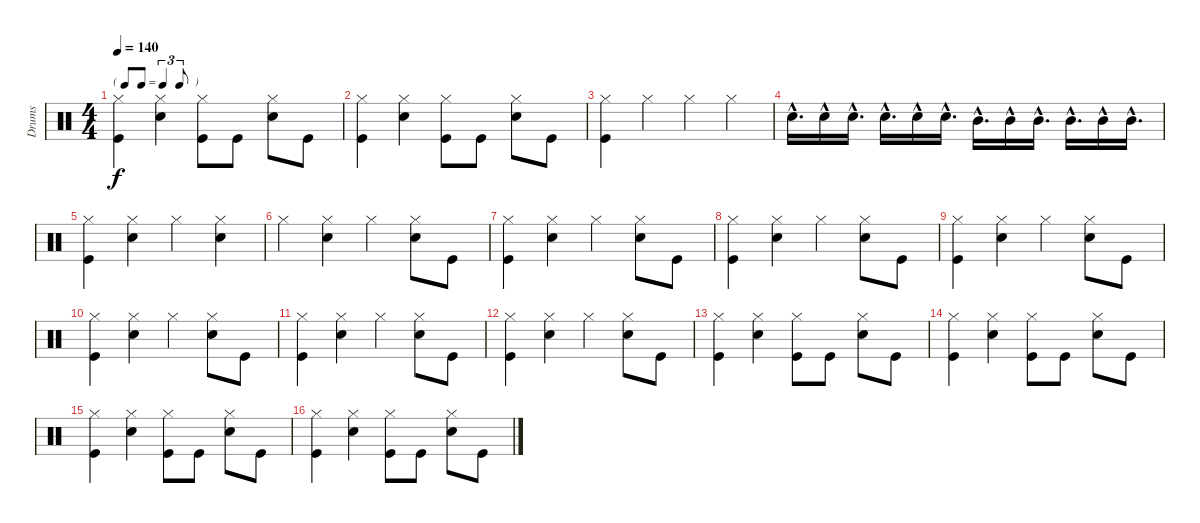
\track ("Drums" "Drums") {instrument percussion}
\staff {score}
\articulation defaults
\ts (4 4)
\tf triplet8th
\tempo 140
\clef neutral
\ks c
("Hi-Hat (closed)" "Kick (hit)").4{dy f} ("Hi-Hat (closed)" "Snare (hit) 2").4 ("Kick (hit)" "Hi-Hat (closed)").8 "Kick (hit)".8 ("Hi-Hat (closed)" "Snare (hit) 2").8 "Kick (hit)".8 |
("Hi-Hat (closed)" "Kick (hit)").4 ("Hi-Hat (closed)" "Snare (hit) 2").4 ("Kick (hit)" "Hi-Hat (closed)").8 "Kick (hit)".8 ("Hi-Hat (closed)" "Snare (hit) 2").8 "Kick (hit)".8 |
("Hi-Hat (closed)" "Kick (hit)").4 "Hi-Hat (closed)".4 "Hi-Hat (closed)".4 "Hi-Hat (closed)".4 |
"Snare (hit) 2"{hac}.16{d} "Snare (hit) 2"{hac}.16 "Snare (hit) 2"{hac}.16{d} "Snare (hit) 2"{hac}.16{d} "Snare (hit) 2"{hac}.16 "Snare (hit) 2"{hac}.16{d} "Mid Tom (hit)"{hac}.16{d} "Mid Tom (hit)"{hac}.16 "Mid Tom (hit)"{hac}.16{d} "Mid Tom (hit)"{hac}.16{d} "Mid Tom (hit)"{hac}.16 "Mid Tom (hit)"{hac}.16{d} |
("Hi-Hat (closed)" "Kick (hit)").4 ("Hi-Hat (closed)" "Snare (hit) 2").4 "Hi-Hat (closed)".4 ("Hi-Hat (closed)" "Snare (hit) 2").4 |
"Hi-Hat (closed)".4 ("Hi-Hat (closed)" "Snare (hit) 2").4 "Hi-Hat (closed)".4 ("Snare (hit) 2" "Hi-Hat (closed)").8 "Kick (hit)".8 |
("Hi-Hat (closed)" "Kick (hit)").4 ("Hi-Hat (closed)" "Snare (hit) 2").4 "Hi-Hat (closed)".4 ("Hi-Hat (closed)" "Snare (hit) 2").8 "Kick (hit)".8 |
("Kick (hit)" "Hi-Hat (closed)").4 ("Hi-Hat (closed)" "Snare (hit) 2").4 "Hi-Hat (closed)".4 ("Hi-Hat (closed)" "Snare (hit) 2").8 "Kick (hit)".8 |
("Kick (hit)" "Hi-Hat (closed)").4 ("Hi-Hat (closed)" "Snare (hit) 2").4 "Hi-Hat (closed)".4 ("Hi-Hat (closed)" "Snare (hit) 2").8 "Kick (hit)".8 |
("Kick (hit)" "Hi-Hat (closed)").4 ("Hi-Hat (closed)" "Snare (hit) 2").4 "Hi-Hat (closed)".4 ("Hi-Hat (closed)" "Snare (hit) 2").8 "Kick (hit)".8 |
("Kick (hit)" "Hi-Hat (closed)").4 ("Hi-Hat (closed)" "Snare (hit) 2").4 "Hi-Hat (closed)".4 ("Hi-Hat (closed)" "Snare (hit) 2").8 "Kick (hit)".8 |
("Kick (hit)" "Hi-Hat (closed)").4 ("Hi-Hat (closed)" "Snare (hit) 2").4 "Hi-Hat (closed)".4 ("Hi-Hat (closed)" "Snare (hit) 2").8 "Kick (hit)".8 |
("Hi-Hat (closed)" "Kick (hit)").4 ("Hi-Hat (closed)" "Snare (hit) 2").4 ("Kick (hit)" "Hi-Hat (closed)").8 "Kick (hit)".8 ("Hi-Hat (closed)" "Snare (hit) 2").8 "Kick (hit)".8 |
("Hi-Hat (closed)" "Kick (hit)").4 ("Hi-Hat (closed)" "Snare (hit) 2").4 ("Kick (hit)" "Hi-Hat (closed)").8 "Kick (hit)".8 ("Hi-Hat (closed)" "Snare (hit) 2").8 "Kick (hit)".8 |
("Hi-Hat (closed)" "Kick (hit)").4 ("Hi-Hat (closed)" "Snare (hit) 2").4 ("Kick (hit)" "Hi-Hat (closed)").8 "Kick (hit)".8 ("Hi-Hat (closed)" "Snare (hit) 2").8 "Kick (hit)".8 |
("Hi-Hat (closed)" "Kick (hit)").4 ("Hi-Hat (closed)" "Snare (hit) 2").4 ("Kick (hit)" "Hi-Hat (closed)").8 "Kick (hit)".8 ("Hi-Hat (closed)" "Snare (hit) 2").8 "Kick (hit)".8
